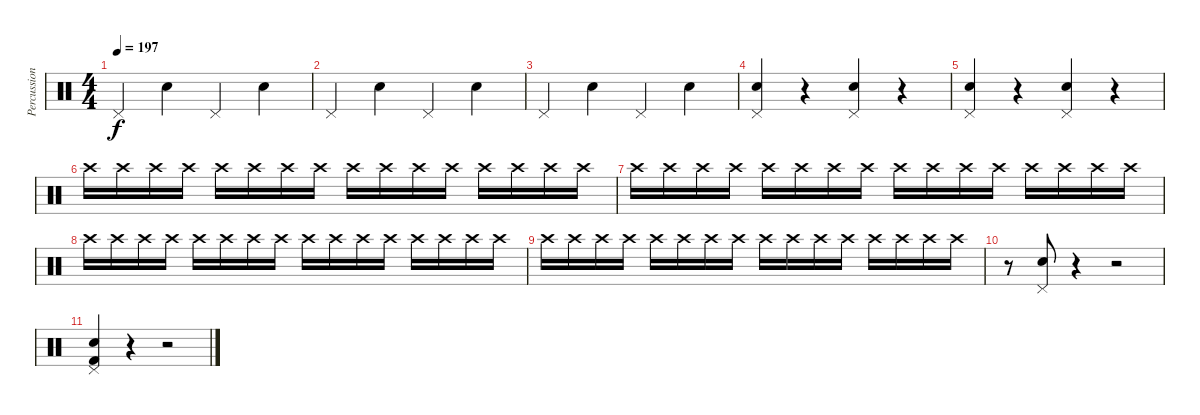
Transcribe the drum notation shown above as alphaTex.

\track ("Percussion" "Percussion") {instrument percussion}
\staff {score}
\articulation defaults
\ts (4 4)
\tempo 197
\clef neutral
\ks c "Pedal Hi-Hat (hit)".4{dy f} "Electric Snare (hit)".4 "Pedal Hi-Hat (hit)".4 "Electric Snare (hit)".4
|
"Pedal Hi-Hat (hit)".4 "Electric Snare (hit)".4 "Pedal Hi-Hat (hit)".4 "Electric Snare (hit)".4 |
"Pedal Hi-Hat (hit)".4 "Electric Snare (hit)".4 "Pedal Hi-Hat (hit)".4 "Electric Snare (hit)".4 |
("Electric Snare (hit)" "Pedal Hi-Hat (hit)").4 r.4 ("Electric Snare (hit)" "Pedal Hi-Hat (hit)").4 r.4 |
("Electric Snare (hit)" "Pedal Hi-Hat (hit)").4 r.4 ("Electric Snare (hit)" "Pedal Hi-Hat (hit)").4 r.4 |
"Crash high (hit)".16 "Crash high (hit)".16 "Crash high (hit)".16 "Crash high (hit)".16 "Crash high (hit)".16 "Crash high (hit)".16 "Crash high (hit)".16 "Crash high (hit)".16 "Crash high (hit)".16 "Crash high (hit)".16 "Crash high (hit)".16 "Crash high (hit)".16 "Crash high (hit)".16 "Crash high (hit)".16 "Crash high (hit)".16 "Crash high (hit)".16 |
"Crash high (hit)".16 "Crash high (hit)".16 "Crash high (hit)".16 "Crash high (hit)".16 "Crash high (hit)".16 "Crash high (hit)".16 "Crash high (hit)".16 "Crash high (hit)".16 "Crash high (hit)".16 "Crash high (hit)".16 "Crash high (hit)".16 "Crash high (hit)".16 "Crash high (hit)".16 "Crash high (hit)".16 "Crash high (hit)".16 "Crash high (hit)".16 |
"Crash high (hit)".16 "Crash high (hit)".16 "Crash high (hit)".16 "Crash high (hit)".16 "Crash high (hit)".16 "Crash high (hit)".16 "Crash high (hit)".16 "Crash high (hit)".16 "Crash high (hit)".16 "Crash high (hit)".16 "Crash high (hit)".16 "Crash high (hit)".16 "Crash high (hit)".16 "Crash high (hit)".16 "Crash high (hit)".16 "Crash high (hit)".16 |
"Crash high (hit)".16 "Crash high (hit)".16 "Crash high (hit)".16 "Crash high (hit)".16 "Crash high (hit)".16 "Crash high (hit)".16 "Crash high (hit)".16 "Crash high (hit)".16 "Crash high (hit)".16 "Crash high (hit)".16 "Crash high (hit)".16 "Crash high (hit)".16 "Crash high (hit)".16 "Crash high (hit)".16 "Crash high (hit)".16 "Crash high (hit)".16 |
r.8 ("Electric Snare (hit)" "Pedal Hi-Hat (hit)").8 r.4 r.2 |
("Electric Snare (hit)" "Kick (hit) 2" "Pedal Hi-Hat (hit)").4 r.4 r.2
